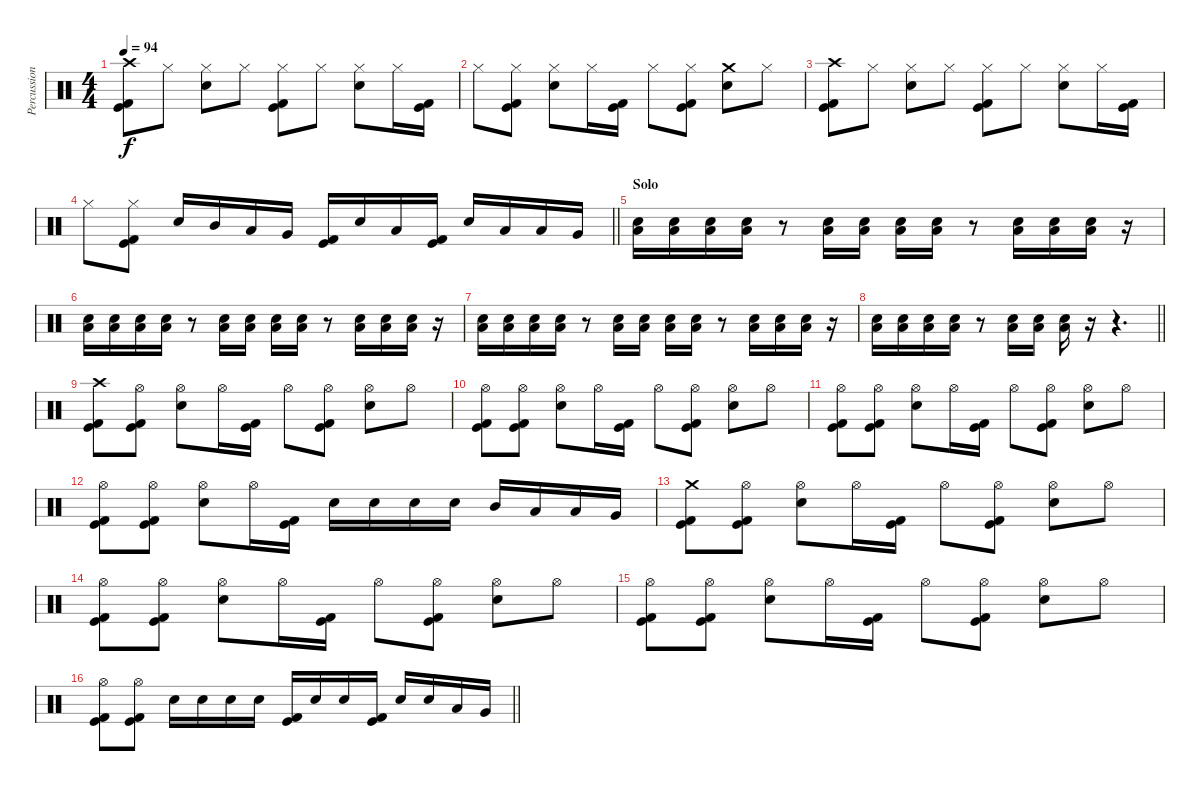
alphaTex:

\track ("Percussion" "Percussion") {instrument percussion}
\staff {score}
\articulation defaults
\ts (4 4)
\tempo 94
\clef neutral
\ks c
("Crash high (hit)" "Kick (hit)" "Kick (hit) 2").8{dy f} "Hi-Hat (closed)".8 ("Hi-Hat (closed)" "Electric Snare (hit)").8 "Hi-Hat (closed)".8 ("Hi-Hat (closed)" "Kick (hit)" "Kick (hit) 2").8 "Hi-Hat (closed)".8 ("Hi-Hat (closed)" "Electric Snare (hit)").8 "Hi-Hat (closed)".16 ("Kick (hit)" "Kick (hit) 2").16 |
"Hi-Hat (closed)".8 ("Hi-Hat (closed)" "Kick (hit)" "Kick (hit) 2").8 ("Hi-Hat (closed)" "Electric Snare (hit)").8 "Hi-Hat (closed)".16 ("Kick (hit)" "Kick (hit) 2").16 "Hi-Hat (closed)".8 ("Hi-Hat (closed)" "Kick (hit)" "Kick (hit) 2").8 ("Crash medium (hit)" "Electric Snare (hit)").8 "Hi-Hat (closed)".8 |
("Crash high (hit)" "Kick (hit)" "Kick (hit) 2").8 "Hi-Hat (closed)".8 ("Hi-Hat (closed)" "Electric Snare (hit)").8 "Hi-Hat (closed)".8 ("Hi-Hat (closed)" "Kick (hit)" "Kick (hit) 2").8 "Hi-Hat (closed)".8 ("Hi-Hat (closed)" "Electric Snare (hit)").8 "Hi-Hat (closed)".16 ("Kick (hit)" "Kick (hit) 2").16 |
\barLineRight lightlight "Hi-Hat (closed)".8
("Hi-Hat (closed)" "Kick (hit)" "Kick (hit) 2").8 "Electric Snare (hit)".16 "Mid Tom (hit)".16 "Low Tom (hit)".16 "Very Low Tom (hit)".16 ("Kick (hit)" "Kick (hit) 2").16 "Electric Snare (hit)".16 "Low Tom (hit)".16 ("Kick (hit)" "Kick (hit) 2").16 "Electric Snare (hit)".16 "Low Tom (hit)".16 "Low Tom (hit)".16 "Very Low Tom (hit)".16 |
\section ("" "Solo")
("Electric Snare (hit)" "Low Floor Tom (hit)").16 ("Electric Snare (hit)" "Low Floor Tom (hit)").16 ("Electric Snare (hit)" "Low Floor Tom (hit)").16 ("Electric Snare (hit)" "Low Floor Tom (hit)").16 r.8 ("Electric Snare (hit)" "Low Floor Tom (hit)").16 ("Electric Snare (hit)" "Low Floor Tom (hit)").16 ("Electric Snare (hit)" "Low Floor Tom (hit)").16 ("Electric Snare (hit)" "Low Floor Tom (hit)").16 r.8 ("Electric Snare (hit)" "Low Floor Tom (hit)").16 ("Electric Snare (hit)" "Low Floor Tom (hit)").16 ("Electric Snare (hit)" "Low Floor Tom (hit)").16 r.16 |
("Electric Snare (hit)" "Low Floor Tom (hit)").16 ("Electric Snare (hit)" "Low Floor Tom (hit)").16 ("Electric Snare (hit)" "Low Floor Tom (hit)").16 ("Electric Snare (hit)" "Low Floor Tom (hit)").16 r.8 ("Electric Snare (hit)" "Low Floor Tom (hit)").16 ("Electric Snare (hit)" "Low Floor Tom (hit)").16 ("Electric Snare (hit)" "Low Floor Tom (hit)").16 ("Electric Snare (hit)" "Low Floor Tom (hit)").16 r.8 ("Electric Snare (hit)" "Low Floor Tom (hit)").16 ("Electric Snare (hit)" "Low Floor Tom (hit)").16 ("Electric Snare (hit)" "Low Floor Tom (hit)").16 r.16 |
("Electric Snare (hit)" "Low Floor Tom (hit)").16 ("Electric Snare (hit)" "Low Floor Tom (hit)").16 ("Electric Snare (hit)" "Low Floor Tom (hit)").16 ("Electric Snare (hit)" "Low Floor Tom (hit)").16 r.8 ("Electric Snare (hit)" "Low Floor Tom (hit)").16 ("Electric Snare (hit)" "Low Floor Tom (hit)").16 ("Electric Snare (hit)" "Low Floor Tom (hit)").16 ("Electric Snare (hit)" "Low Floor Tom (hit)").16 r.8 ("Electric Snare (hit)" "Low Floor Tom (hit)").16 ("Electric Snare (hit)" "Low Floor Tom (hit)").16 ("Electric Snare (hit)" "Low Floor Tom (hit)").16 r.16 |
\barLineRight lightlight
("Electric Snare (hit)" "Low Floor Tom (hit)").16 ("Electric Snare (hit)" "Low Floor Tom (hit)").16 ("Electric Snare (hit)" "Low Floor Tom (hit)").16 ("Electric Snare (hit)" "Low Floor Tom (hit)").16 r.8 ("Electric Snare (hit)" "Low Floor Tom (hit)").16 ("Electric Snare (hit)" "Low Floor Tom (hit)").16 ("Electric Snare (hit)" "Low Floor Tom (hit)").16 r.16 r.4{d} |
\section ("" "")
("Crash high (hit)" "Kick (hit)" "Kick (hit) 2").8 ("Hi-Hat (open)" "Kick (hit)" "Kick (hit) 2").8 ("Hi-Hat (open)" "Electric Snare (hit)").8 "Hi-Hat (open)".16 ("Kick (hit)" "Kick (hit) 2").16 "Hi-Hat (open)".8 ("Hi-Hat (open)" "Kick (hit)" "Kick (hit) 2").8 ("Hi-Hat (open)" "Electric Snare (hit)").8 "Hi-Hat (open)".8 |
("Hi-Hat (open)" "Kick (hit)" "Kick (hit) 2").8 ("Hi-Hat (open)" "Kick (hit)" "Kick (hit) 2").8 ("Hi-Hat (open)" "Electric Snare (hit)").8 "Hi-Hat (open)".16 ("Kick (hit)" "Kick (hit) 2").16 "Hi-Hat (open)".8 ("Hi-Hat (open)" "Kick (hit)" "Kick (hit) 2").8 ("Hi-Hat (open)" "Electric Snare (hit)").8 "Hi-Hat (open)".8 |
("Hi-Hat (open)" "Kick (hit)" "Kick (hit) 2").8 ("Hi-Hat (open)" "Kick (hit)" "Kick (hit) 2").8 ("Hi-Hat (open)" "Electric Snare (hit)").8 "Hi-Hat (open)".16 ("Kick (hit)" "Kick (hit) 2").16 "Hi-Hat (open)".8 ("Hi-Hat (open)" "Kick (hit)" "Kick (hit) 2").8 ("Hi-Hat (open)" "Electric Snare (hit)").8 "Hi-Hat (open)".8 |
("Hi-Hat (open)" "Kick (hit)" "Kick (hit) 2").8 ("Hi-Hat (open)" "Kick (hit)" "Kick (hit) 2").8 ("Hi-Hat (open)" "Electric Snare (hit)").8 "Hi-Hat (open)".16 ("Kick (hit)" "Kick (hit) 2").16 "Electric Snare (hit)".16 "Electric Snare (hit)".16 "Electric Snare (hit)".16 "Electric Snare (hit)".16 "Mid Tom (hit)".16 "Low Tom (hit)".16 "Low Tom (hit)".16 "Very Low Tom (hit)".16 |
("Crash medium (hit)" "Kick (hit)" "Kick (hit) 2").8 ("Hi-Hat (open)" "Kick (hit)" "Kick (hit) 2").8 ("Hi-Hat (open)" "Electric Snare (hit)").8 "Hi-Hat (open)".16 ("Kick (hit)" "Kick (hit) 2").16 "Hi-Hat (open)".8 ("Hi-Hat (open)" "Kick (hit)" "Kick (hit) 2").8 ("Hi-Hat (open)" "Electric Snare (hit)").8 "Hi-Hat (open)".8 |
("Hi-Hat (open)" "Kick (hit)" "Kick (hit) 2").8 ("Hi-Hat (open)" "Kick (hit)" "Kick (hit) 2").8 ("Hi-Hat (open)" "Electric Snare (hit)").8 "Hi-Hat (open)".16 ("Kick (hit)" "Kick (hit) 2").16 "Hi-Hat (open)".8 ("Hi-Hat (open)" "Kick (hit)" "Kick (hit) 2").8 ("Hi-Hat (open)" "Electric Snare (hit)").8 "Hi-Hat (open)".8 |
("Hi-Hat (open)" "Kick (hit)" "Kick (hit) 2").8 ("Hi-Hat (open)" "Kick (hit)" "Kick (hit) 2").8 ("Hi-Hat (open)" "Electric Snare (hit)").8 "Hi-Hat (open)".16 ("Kick (hit)" "Kick (hit) 2").16 "Hi-Hat (open)".8 ("Hi-Hat (open)" "Kick (hit)" "Kick (hit) 2").8 ("Hi-Hat (open)" "Electric Snare (hit)").8 "Hi-Hat (open)".8 |
\barLineRight lightlight
("Hi-Hat (open)" "Kick (hit)" "Kick (hit) 2").8 ("Hi-Hat (open)" "Kick (hit)" "Kick (hit) 2").8 "Electric Snare (hit)".16 "Electric Snare (hit)".16 "Electric Snare (hit)".16 "Electric Snare (hit)".16 ("Kick (hit)" "Kick (hit) 2").16 "Electric Snare (hit)".16 "Electric Snare (hit)".16 ("Kick (hit)" "Kick (hit) 2").16 "Electric Snare (hit)".16 "Electric Snare (hit)".16 "Low Tom (hit)".16 "Very Low Tom (hit)".16
